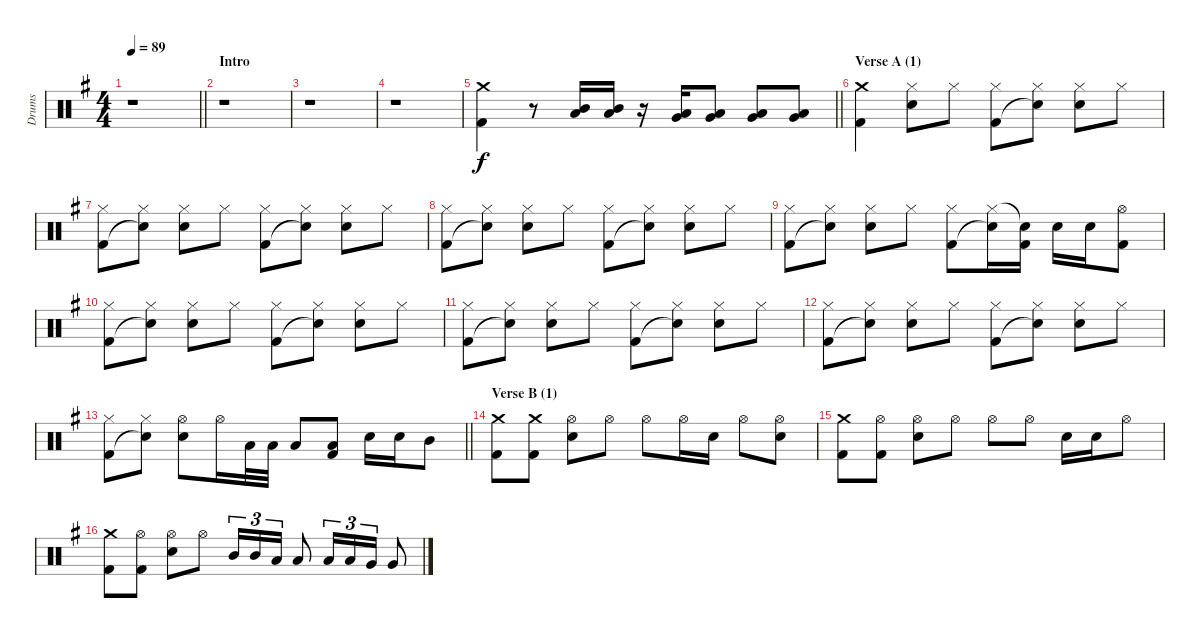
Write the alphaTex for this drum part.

\track ("Drums" "Drums") {instrument percussion}
\staff {score}
\articulation defaults
\ts (4 4)
\tempo 89
\clef neutral
\barLineRight lightlight
\ks g
r.1{dy f} |
\section ("" "Intro")
r.1 |
r.1 |
r.1 |
\barLineRight lightlight
("Crash medium (hit)" "Kick (hit) 2").4 r.8 ("Mid Tom (hit)" "Low Tom (hit)").16 ("Mid Tom (hit)" "Low Tom (hit)").16 r.16 ("Low Tom (hit)" "Very Low Tom (hit)").16 ("Low Tom (hit)" "Very Low Tom (hit)").8 ("Low Tom (hit)" "Very Low Tom (hit)").8 ("Very Low Tom (hit)" "Low Floor Tom (hit)").8 |
\section ("" "Verse A (1)")
("Crash medium (hit)" "Kick (hit) 2").4 ("Hi-Hat (closed)" "Electric Snare (hit)").8 "Hi-Hat (closed)".8 ("Hi-Hat (closed)" "Kick (hit) 2").8 ("Hi-Hat (closed)" "Snare (hit)"{t}).8 ("Hi-Hat (closed)" "Electric Snare (hit)").8 "Hi-Hat (closed)".8 |
("Hi-Hat (closed)" "Kick (hit) 2").8 ("Hi-Hat (closed)" "Snare (hit)"{t}).8 ("Hi-Hat (closed)" "Electric Snare (hit)").8 "Hi-Hat (closed)".8 ("Hi-Hat (closed)" "Kick (hit) 2").8 ("Hi-Hat (closed)" "Snare (hit)"{t}).8 ("Hi-Hat (closed)" "Electric Snare (hit)").8 "Hi-Hat (closed)".8 |
("Hi-Hat (closed)" "Kick (hit) 2").8 ("Hi-Hat (closed)" "Snare (hit)"{t}).8 ("Hi-Hat (closed)" "Electric Snare (hit)").8 "Hi-Hat (closed)".8 ("Hi-Hat (closed)" "Kick (hit) 2").8 ("Hi-Hat (closed)" "Snare (hit)"{t}).8 ("Hi-Hat (closed)" "Electric Snare (hit)").8 "Hi-Hat (closed)".8 |
("Hi-Hat (closed)" "Kick (hit) 2").8 ("Hi-Hat (closed)" "Snare (hit)"{t}).8 ("Hi-Hat (closed)" "Electric Snare (hit)").8 "Hi-Hat (closed)".8 ("Hi-Hat (closed)" "Kick (hit) 2").8 ("Hi-Hat (closed)" "Snare (hit)"{t}).16 ("Snare (hit)"{t} "Kick (hit) 2").16 "Electric Snare (hit)".16 "Electric Snare (hit)".16 ("Hi-Hat (open)" "Kick (hit) 2").8 |
("Hi-Hat (closed)" "Kick (hit) 2").8 ("Hi-Hat (closed)" "Snare (hit)"{t}).8 ("Hi-Hat (closed)" "Electric Snare (hit)").8 "Hi-Hat (closed)".8 ("Hi-Hat (closed)" "Kick (hit) 2").8 ("Hi-Hat (closed)" "Snare (hit)"{t}).8 ("Hi-Hat (closed)" "Electric Snare (hit)").8 "Hi-Hat (closed)".8 |
("Hi-Hat (closed)" "Kick (hit) 2").8 ("Hi-Hat (closed)" "Snare (hit)"{t}).8 ("Hi-Hat (closed)" "Electric Snare (hit)").8 "Hi-Hat (closed)".8 ("Hi-Hat (closed)" "Kick (hit) 2").8 ("Hi-Hat (closed)" "Snare (hit)"{t}).8 ("Hi-Hat (closed)" "Electric Snare (hit)").8 "Hi-Hat (closed)".8 |
("Hi-Hat (closed)" "Kick (hit) 2").8 ("Hi-Hat (closed)" "Snare (hit)"{t}).8 ("Hi-Hat (closed)" "Electric Snare (hit)").8 "Hi-Hat (closed)".8 ("Hi-Hat (closed)" "Kick (hit) 2").8 ("Hi-Hat (closed)" "Snare (hit)"{t}).8 ("Hi-Hat (closed)" "Electric Snare (hit)").8 "Hi-Hat (closed)".8 |
\barLineRight lightlight
("Hi-Hat (closed)" "Kick (hit) 2").8 ("Hi-Hat (closed)" "Snare (hit)"{t}).8 ("Hi-Hat (open)" "Electric Snare (hit)").8 "Hi-Hat (open)".16 "Low Tom (hit)".32 "Low Tom (hit)".32 "Low Tom (hit)".8 ("Low Tom (hit)" "Kick (hit) 2").8 "Electric Snare (hit)".16 "Electric Snare (hit)".16 "Mid Tom (hit)".8 |
\section ("" "Verse B (1)")
("Crash medium (hit)" "Kick (hit) 2").8 ("Crash medium (hit)" "Kick (hit) 2").8 ("Hi-Hat (open)" "Electric Snare (hit)").8 "Hi-Hat (open)".8 "Hi-Hat (open)".8 "Hi-Hat (open)".16 "Electric Snare (hit)".16 "Hi-Hat (open)".8 ("Hi-Hat (open)" "Electric Snare (hit)").8 |
("Crash medium (hit)" "Kick (hit) 2").8 ("Hi-Hat (open)" "Kick (hit) 2").8 ("Hi-Hat (open)" "Electric Snare (hit)").8 "Hi-Hat (open)".8 "Hi-Hat (open)".8 "Hi-Hat (open)".8 "Electric Snare (hit)".16 "Electric Snare (hit)".16 "Hi-Hat (open)".8 |
("Crash medium (hit)" "Kick (hit) 2").8 ("Hi-Hat (open)" "Kick (hit) 2").8 ("Hi-Hat (open)" "Electric Snare (hit)").8 "Hi-Hat (open)".8 "Mid Tom (hit)".16{tu (3 2)} "Mid Tom (hit)".16{tu (3 2)} "Low Tom (hit)".16{tu (3 2)} "Low Tom (hit)".8 "Low Tom (hit)".16{tu (3 2)} "Low Tom (hit)".16{tu (3 2)} "Very Low Tom (hit)".16{tu (3 2)} "Very Low Tom (hit)".8
